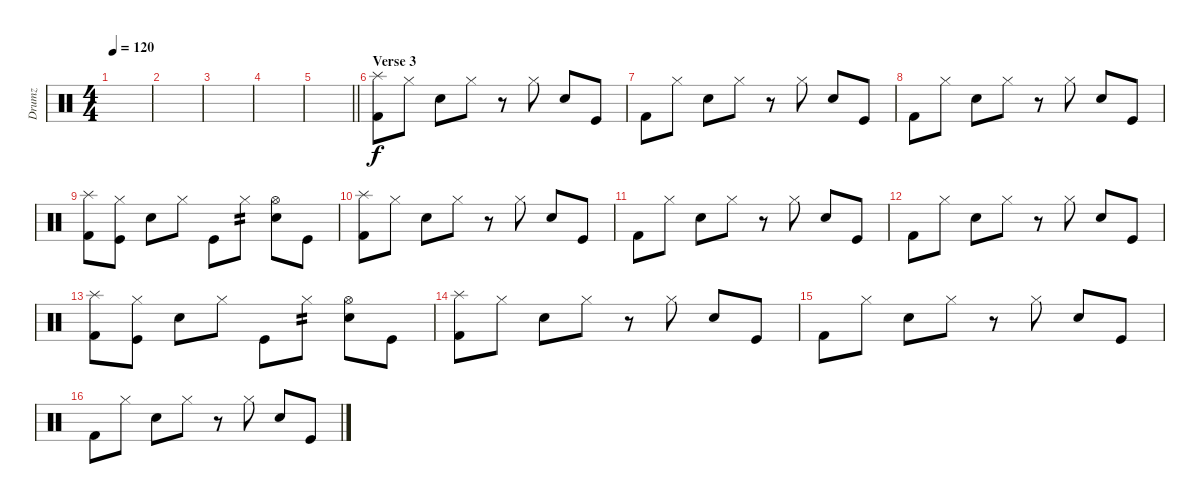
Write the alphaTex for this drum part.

\track ("Drumz" "Drumz") {instrument percussion}
\staff {score}
\articulation defaults
\ts (4 4)
\tempo 120
\clef neutral
\ks c
|
|
|
|
\barLineRight lightlight
|
\section ("" "Verse 3")
("Splash (hit)" "Kick (hit) 2").8{dy f} "Hi-Hat (closed)".8 "Electric Snare (hit)".8 "Hi-Hat (closed)".8 r.8 "Hi-Hat (closed)".8 "Electric Snare (hit)".8 "Kick (hit)".8 |
"Kick (hit) 2".8 "Hi-Hat (closed)".8 "Electric Snare (hit)".8 "Hi-Hat (closed)".8 r.8 "Hi-Hat (closed)".8 "Electric Snare (hit)".8 "Kick (hit)".8 |
"Kick (hit) 2".8 "Hi-Hat (closed)".8 "Electric Snare (hit)".8 "Hi-Hat (closed)".8 r.8 "Hi-Hat (closed)".8 "Electric Snare (hit)".8 "Kick (hit)".8 |
("Splash (hit)" "Kick (hit) 2").8 ("Hi-Hat (closed)" "Kick (hit)").8 "Electric Snare (hit)".8 "Hi-Hat (closed)".8 "Kick (hit)".8 "Hi-Hat (closed)".8{tp 2} ("Hi-Hat (open)" "Electric Snare (hit)").8 "Kick (hit)".8 |
("Splash (hit)" "Kick (hit) 2").8 "Hi-Hat (closed)".8 "Electric Snare (hit)".8 "Hi-Hat (closed)".8 r.8 "Hi-Hat (closed)".8 "Electric Snare (hit)".8 "Kick (hit)".8 |
"Kick (hit) 2".8 "Hi-Hat (closed)".8 "Electric Snare (hit)".8 "Hi-Hat (closed)".8 r.8 "Hi-Hat (closed)".8 "Electric Snare (hit)".8 "Kick (hit)".8 |
"Kick (hit) 2".8 "Hi-Hat (closed)".8 "Electric Snare (hit)".8 "Hi-Hat (closed)".8 r.8 "Hi-Hat (closed)".8 "Electric Snare (hit)".8 "Kick (hit)".8 |
("Splash (hit)" "Kick (hit) 2").8 ("Hi-Hat (closed)" "Kick (hit)").8 "Electric Snare (hit)".8 "Hi-Hat (closed)".8 "Kick (hit)".8 "Hi-Hat (closed)".8{tp 2} ("Hi-Hat (open)" "Electric Snare (hit)").8 "Kick (hit)".8 |
("Splash (hit)" "Kick (hit) 2").8 "Hi-Hat (closed)".8 "Electric Snare (hit)".8 "Hi-Hat (closed)".8 r.8 "Hi-Hat (closed)".8 "Electric Snare (hit)".8 "Kick (hit)".8 |
"Kick (hit) 2".8 "Hi-Hat (closed)".8 "Electric Snare (hit)".8 "Hi-Hat (closed)".8 r.8 "Hi-Hat (closed)".8 "Electric Snare (hit)".8 "Kick (hit)".8 |
"Kick (hit) 2".8 "Hi-Hat (closed)".8 "Electric Snare (hit)".8 "Hi-Hat (closed)".8 r.8 "Hi-Hat (closed)".8 "Electric Snare (hit)".8 "Kick (hit)".8
